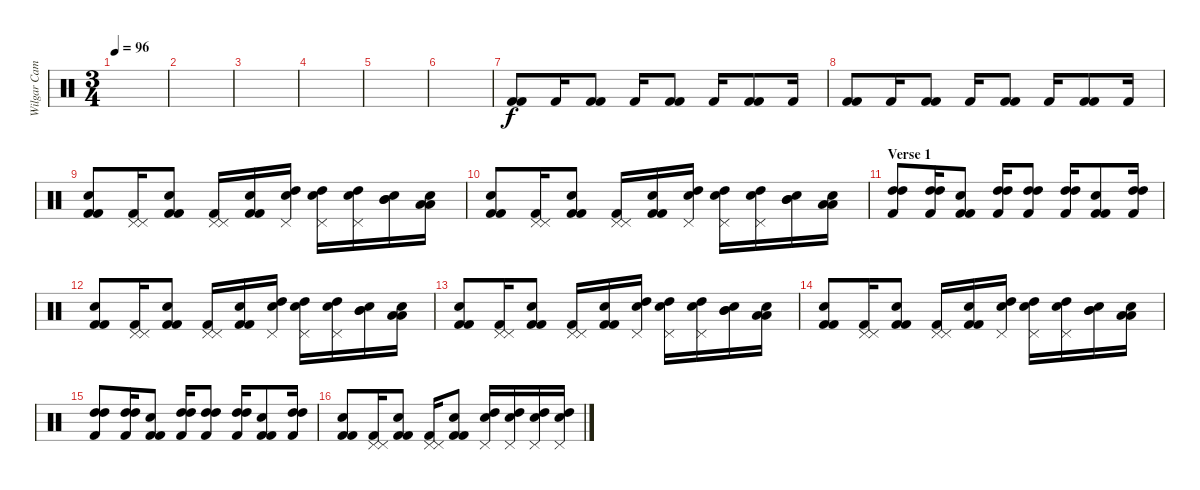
\track ("Wilgar Campbell" "Wilgar Cam") {instrument percussion}
\staff {score}
\articulation defaults
\ts (3 4)
\tempo 96
\clef neutral
\ks c
|
|
|
|
|
|
("Kick (hit) 2" "Kick (hit) 2").8{volume 12} "Kick (hit) 2".16 ("Kick (hit) 2" "Kick (hit) 2").8 "Kick (hit) 2".16 ("Kick (hit) 2" "Kick (hit) 2").8 "Kick (hit) 2".16 ("Kick (hit) 2" "Kick (hit) 2").8 "Kick (hit) 2".16 |
("Kick (hit) 2" "Kick (hit) 2").8 "Kick (hit) 2".16 ("Kick (hit) 2" "Kick (hit) 2").8 "Kick (hit) 2".16 ("Kick (hit) 2" "Kick (hit) 2").8 "Kick (hit) 2".16 ("Kick (hit) 2" "Kick (hit) 2").8 "Kick (hit) 2".16 |
("Electric Snare (hit)" "Kick (hit) 2" "Kick (hit) 2").8{volume 16} ("Pedal Hi-Hat (hit)" "Pedal Hi-Hat (hit)" "Kick (hit) 2").16 ("Snare (hit) 2" "Kick (hit) 2" "Kick (hit) 2").8 ("Pedal Hi-Hat (hit)" "Pedal Hi-Hat (hit)" "Kick (hit) 2").16 ("Snare (hit) 2" "Kick (hit) 2" "Kick (hit) 2").16 ("Electric Snare (hit)" "Pedal Hi-Hat (hit)" "High Tom (hit)").16 ("Electric Snare (hit)" "Pedal Hi-Hat (hit)" "High Tom (hit)").16 ("Electric Snare (hit)" "Pedal Hi-Hat (hit)" "High Tom (hit)").16 ("Electric Snare (hit)" "Mid Tom (hit)" "Mid Tom (hit)").16 ("Electric Snare (hit)" "Low Tom (hit)" "Low Tom (hit)").16 |
("Electric Snare (hit)" "Kick (hit) 2" "Kick (hit) 2").8 ("Pedal Hi-Hat (hit)" "Pedal Hi-Hat (hit)" "Kick (hit) 2").16 ("Snare (hit) 2" "Kick (hit) 2" "Kick (hit) 2").8 ("Pedal Hi-Hat (hit)" "Pedal Hi-Hat (hit)" "Kick (hit) 2").16 ("Snare (hit) 2" "Kick (hit) 2" "Kick (hit) 2").16 ("Electric Snare (hit)" "Pedal Hi-Hat (hit)" "High Tom (hit)").16 ("Electric Snare (hit)" "Pedal Hi-Hat (hit)" "High Tom (hit)").16 ("Electric Snare (hit)" "Pedal Hi-Hat (hit)" "High Tom (hit)").16 ("Electric Snare (hit)" "Mid Tom (hit)" "Mid Tom (hit)").16 ("Electric Snare (hit)" "Low Tom (hit)" "Low Tom (hit)").16 |
\section ("" "Verse 1")
("High Tom (hit)" "High Tom (hit)" "Kick (hit) 2").8 ("High Tom (hit)" "High Tom (hit)" "Kick (hit) 2").16 ("Snare (hit) 2" "Kick (hit) 2" "Kick (hit) 2").8 ("High Tom (hit)" "High Tom (hit)" "Kick (hit) 2").16 ("High Tom (hit)" "High Tom (hit)" "Kick (hit) 2").8 ("High Tom (hit)" "High Tom (hit)" "Kick (hit) 2").16 ("Snare (hit) 2" "Kick (hit) 2" "Kick (hit) 2").8 ("High Tom (hit)" "High Tom (hit)" "Kick (hit) 2").16 |
("Electric Snare (hit)" "Kick (hit) 2" "Kick (hit) 2").8 ("Pedal Hi-Hat (hit)" "Pedal Hi-Hat (hit)" "Kick (hit) 2").16 ("Snare (hit) 2" "Kick (hit) 2" "Kick (hit) 2").8 ("Pedal Hi-Hat (hit)" "Pedal Hi-Hat (hit)" "Kick (hit) 2").16 ("Snare (hit) 2" "Kick (hit) 2" "Kick (hit) 2").16 ("Electric Snare (hit)" "Pedal Hi-Hat (hit)" "High Tom (hit)").16 ("Electric Snare (hit)" "Pedal Hi-Hat (hit)" "High Tom (hit)").16 ("Electric Snare (hit)" "Pedal Hi-Hat (hit)" "High Tom (hit)").16 ("Electric Snare (hit)" "Mid Tom (hit)" "Mid Tom (hit)").16 ("Electric Snare (hit)" "Low Tom (hit)" "Low Tom (hit)").16 |
("Electric Snare (hit)" "Kick (hit) 2" "Kick (hit) 2").8 ("Pedal Hi-Hat (hit)" "Pedal Hi-Hat (hit)" "Kick (hit) 2").16 ("Snare (hit) 2" "Kick (hit) 2" "Kick (hit) 2").8 ("Pedal Hi-Hat (hit)" "Pedal Hi-Hat (hit)" "Kick (hit) 2").16 ("Snare (hit) 2" "Kick (hit) 2" "Kick (hit) 2").16 ("Electric Snare (hit)" "Pedal Hi-Hat (hit)" "High Tom (hit)").16 ("Electric Snare (hit)" "Pedal Hi-Hat (hit)" "High Tom (hit)").16 ("Electric Snare (hit)" "Pedal Hi-Hat (hit)" "High Tom (hit)").16 ("Electric Snare (hit)" "Mid Tom (hit)" "Mid Tom (hit)").16 ("Electric Snare (hit)" "Low Tom (hit)" "Low Tom (hit)").16 |
("Electric Snare (hit)" "Kick (hit) 2" "Kick (hit) 2").8 ("Pedal Hi-Hat (hit)" "Pedal Hi-Hat (hit)" "Kick (hit) 2").16 ("Snare (hit) 2" "Kick (hit) 2" "Kick (hit) 2").8 ("Pedal Hi-Hat (hit)" "Pedal Hi-Hat (hit)" "Kick (hit) 2").16 ("Snare (hit) 2" "Kick (hit) 2" "Kick (hit) 2").16 ("Electric Snare (hit)" "Pedal Hi-Hat (hit)" "High Tom (hit)").16 ("Electric Snare (hit)" "Pedal Hi-Hat (hit)" "High Tom (hit)").16 ("Electric Snare (hit)" "Pedal Hi-Hat (hit)" "High Tom (hit)").16 ("Electric Snare (hit)" "Mid Tom (hit)" "Mid Tom (hit)").16 ("Electric Snare (hit)" "Low Tom (hit)" "Low Tom (hit)").16 |
("High Tom (hit)" "High Tom (hit)" "Kick (hit) 2").8 ("High Tom (hit)" "High Tom (hit)" "Kick (hit) 2").16 ("Snare (hit) 2" "Kick (hit) 2" "Kick (hit) 2").8 ("High Tom (hit)" "High Tom (hit)" "Kick (hit) 2").16 ("High Tom (hit)" "High Tom (hit)" "Kick (hit) 2").8 ("High Tom (hit)" "High Tom (hit)" "Kick (hit) 2").16 ("Snare (hit) 2" "Kick (hit) 2" "Kick (hit) 2").8 ("High Tom (hit)" "High Tom (hit)" "Kick (hit) 2").16 |
("Electric Snare (hit)" "Kick (hit) 2" "Kick (hit) 2").8 ("Pedal Hi-Hat (hit)" "Pedal Hi-Hat (hit)" "Kick (hit) 2").16 ("Snare (hit) 2" "Kick (hit) 2" "Kick (hit) 2").8 ("Pedal Hi-Hat (hit)" "Pedal Hi-Hat (hit)" "Kick (hit) 2").16 ("Snare (hit) 2" "Kick (hit) 2" "Kick (hit) 2").8 ("Snare (hit) 2" "Pedal Hi-Hat (hit)" "High Tom (hit)").16 ("Electric Snare (hit)" "Pedal Hi-Hat (hit)" "High Tom (hit)").16 ("Electric Snare (hit)" "Pedal Hi-Hat (hit)" "High Tom (hit)").16 ("Electric Snare (hit)" "Pedal Hi-Hat (hit)" "High Tom (hit)").16
